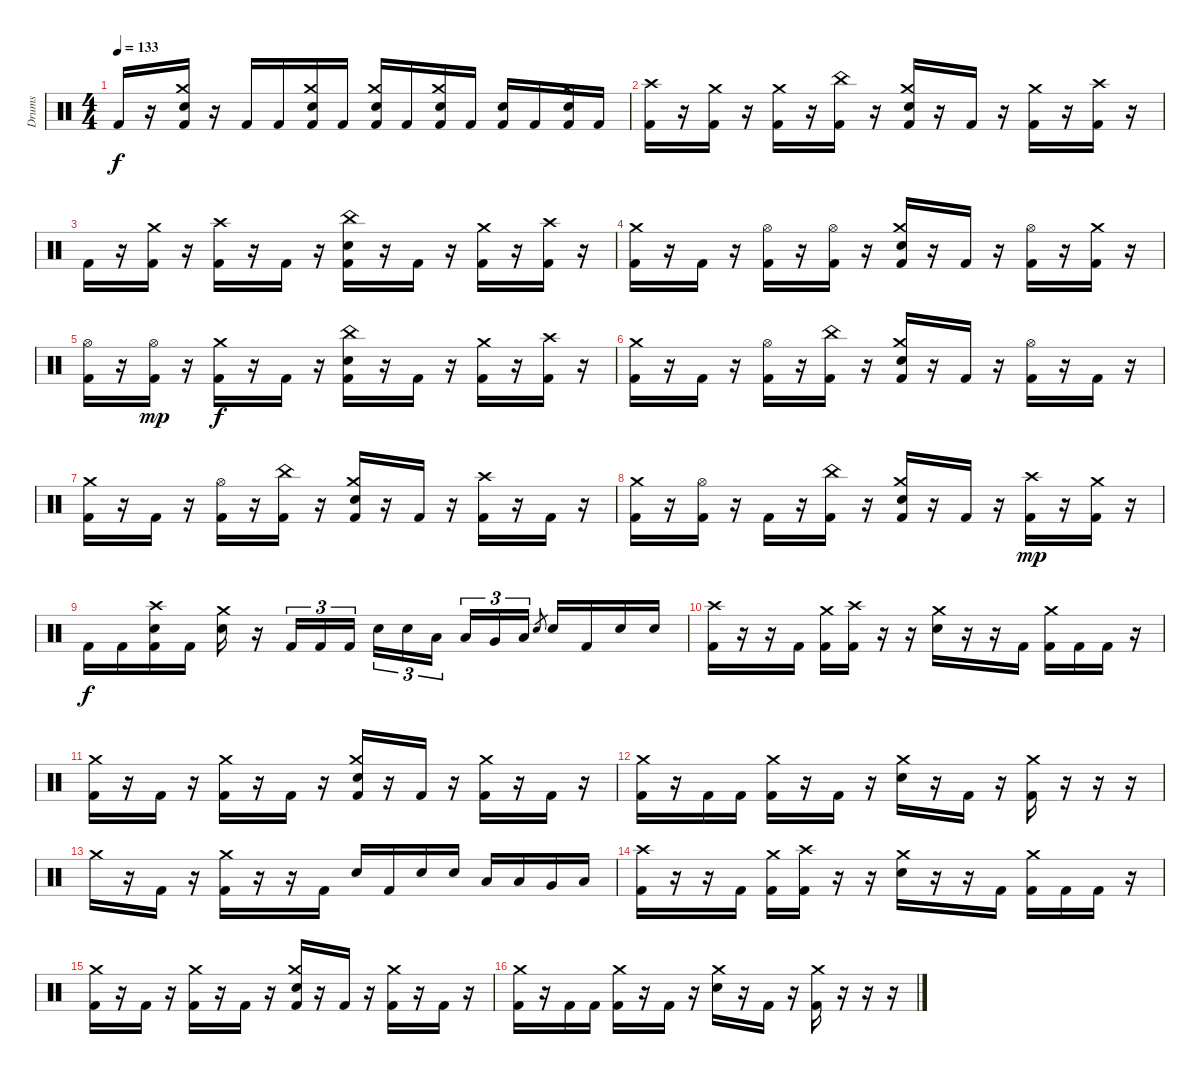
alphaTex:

\track ("Drums" "Drums") {instrument percussion}
\staff {score}
\articulation defaults
\ts (4 4)
\tempo 133
\clef neutral
\ks c "Kick (hit) 2".16{dy f}
r.16 ("Crash medium (hit)" "Snare (hit) 2" "Kick (hit) 2").16 r.16 "Kick (hit) 2".16 "Kick (hit) 2".16 ("Crash medium (hit)" "Snare (hit) 2" "Kick (hit) 2").16 "Kick (hit) 2".16 ("Crash medium (hit)" "Snare (hit) 2" "Kick (hit) 2").16 "Kick (hit) 2".16 ("Crash medium (hit)" "Snare (hit) 2" "Kick (hit) 2").16 "Kick (hit) 2".16 ("Snare (hit) 2" "Kick (hit) 2").16 "Kick (hit) 2".16 ("Crash medium (hit)" "Snare (hit) 2" "Kick (hit) 2").16 "Kick (hit) 2".16 |
("Crash high (hit)" "Kick (hit) 2").16 r.16 ("Crash medium (hit)" "Kick (hit) 2").16 r.16 ("Crash medium (hit)" "Kick (hit) 2").16 r.16 ("China (hit)" "Kick (hit) 2").16 r.16 ("Crash medium (hit)" "Snare (hit) 2" "Kick (hit) 2").16 r.16 "Kick (hit) 2".16 r.16 ("Crash medium (hit)" "Kick (hit) 2").16 r.16 ("Crash high (hit)" "Kick (hit) 2").16 r.16 |
"Kick (hit) 2".16 r.16 ("Crash medium (hit)" "Kick (hit) 2").16 r.16 ("Crash high (hit)" "Kick (hit) 2").16 r.16 "Kick (hit) 2".16 r.16 ("China (hit)" "Snare (hit) 2" "Kick (hit) 2").16 r.16 "Kick (hit) 2".16 r.16 ("Crash medium (hit)" "Kick (hit) 2").16 r.16 ("Crash high (hit)" "Kick (hit) 2").16 r.16 |
("Crash medium (hit)" "Kick (hit) 2").16 r.16 "Kick (hit) 2".16 r.16 ("Hi-Hat (open)" "Kick (hit) 2").16 r.16 ("Hi-Hat (open)" "Kick (hit) 2").16 r.16 ("Crash medium (hit)" "Snare (hit) 2" "Kick (hit) 2").16 r.16 "Kick (hit) 2".16 r.16 ("Hi-Hat (open)" "Kick (hit) 2").16 r.16 ("Crash medium (hit)" "Kick (hit) 2").16 r.16 |
("Hi-Hat (open)" "Kick (hit) 2").16 r.16 ("Hi-Hat (open)" "Kick (hit) 2").16{dy mp} r.16 ("Crash medium (hit)" "Kick (hit) 2").16{dy f} r.16 "Kick (hit) 2".16 r.16 ("China (hit)" "Snare (hit) 2" "Kick (hit) 2").16 r.16 "Kick (hit) 2".16 r.16 ("Crash medium (hit)" "Kick (hit) 2").16 r.16 ("Crash high (hit)" "Kick (hit) 2").16 r.16 |
("Crash medium (hit)" "Kick (hit) 2").16 r.16 "Kick (hit) 2".16 r.16 ("Hi-Hat (open)" "Kick (hit) 2").16 r.16 ("China (hit)" "Kick (hit) 2").16 r.16 ("Crash medium (hit)" "Snare (hit) 2" "Kick (hit) 2").16 r.16 "Kick (hit) 2".16 r.16 ("Hi-Hat (open)" "Kick (hit) 2").16 r.16 "Kick (hit) 2".16 r.16 |
("Crash medium (hit)" "Kick (hit) 2").16 r.16 "Kick (hit) 2".16 r.16 ("Hi-Hat (open)" "Kick (hit) 2").16 r.16 ("China (hit)" "Kick (hit) 2").16 r.16 ("Crash medium (hit)" "Snare (hit) 2" "Kick (hit) 2").16 r.16 "Kick (hit) 2".16 r.16 ("Crash high (hit)" "Kick (hit) 2").16 r.16 "Kick (hit) 2".16 r.16 |
("Crash medium (hit)" "Kick (hit) 2").16 r.16 ("Hi-Hat (open)" "Kick (hit) 2").16 r.16 "Kick (hit) 2".16 r.16 ("China (hit)" "Kick (hit) 2").16 r.16 ("Crash medium (hit)" "Snare (hit) 2" "Kick (hit) 2").16 r.16 "Kick (hit) 2".16 r.16 ("Crash high (hit)" "Kick (hit) 2").16{dy mp} r.16 ("Crash medium (hit)" "Kick (hit) 2").16 r.16 |
"Kick (hit) 2".16{dy f} "Kick (hit) 2".16 ("Crash high (hit)" "Snare (hit) 2" "Kick (hit) 2").16 "Kick (hit) 2".16 ("Crash medium (hit)" "Snare (hit) 2").16 r.16 "Kick (hit) 2".16{tu (3 2)} "Kick (hit) 2".16{tu (3 2)} "Kick (hit) 2".16{tu (3 2)} "Snare (hit) 2".16{tu (3 2)} "Snare (hit) 2".16{tu (3 2)} "Low Tom (hit)".16{tu (3 2) beam splitsecondary} "Low Tom (hit)".16{tu (3 2)} "Very Low Tom (hit)".16{tu (3 2)} "Low Floor Tom (hit)".16{tu (3 2)} "Snare (hit) 2".8{gr} "Snare (hit) 2".16 "Kick (hit) 2".16 "Snare (hit) 2".16 "Snare (hit) 2".16 |
("Crash high (hit)" "Kick (hit) 2").16 r.16 r.16 "Kick (hit) 2".16 ("Crash medium (hit)" "Kick (hit) 2").16 ("Crash high (hit)" "Kick (hit) 2").16 r.16 r.16 ("Crash medium (hit)" "Snare (hit) 2").16 r.16 r.16 "Kick (hit) 2".16 ("Crash medium (hit)" "Kick (hit) 2").16 "Kick (hit) 2".16 "Kick (hit) 2".16 r.16 |
("Crash medium (hit)" "Kick (hit) 2").16 r.16 "Kick (hit) 2".16 r.16 ("Crash medium (hit)" "Kick (hit) 2").16 r.16 "Kick (hit) 2".16 r.16 ("Crash medium (hit)" "Snare (hit) 2" "Kick (hit) 2").16 r.16 "Kick (hit) 2".16 r.16 ("Crash medium (hit)" "Kick (hit) 2").16 r.16 "Kick (hit) 2".16 r.16 |
("Crash medium (hit)" "Kick (hit) 2").16 r.16 "Kick (hit) 2".16 "Kick (hit) 2".16 ("Crash medium (hit)" "Kick (hit) 2").16 r.16 "Kick (hit) 2".16 r.16 ("Crash medium (hit)" "Snare (hit) 2").16 r.16 "Kick (hit) 2".16 r.16 ("Crash medium (hit)" "Kick (hit) 2").16 r.16 r.16 r.16 |
"Crash medium (hit)".16 r.16 "Kick (hit) 2".16 r.16 ("Crash medium (hit)" "Kick (hit) 2").16 r.16 r.16 "Kick (hit) 2".16 "Snare (hit) 2".16 "Kick (hit) 2".16 "Snare (hit) 2".16 "Snare (hit) 2".16 "Low Tom (hit)".16 "Low Tom (hit)".16 "Very Low Tom (hit)".16 "Low Floor Tom (hit)".16 |
("Crash high (hit)" "Kick (hit) 2").16 r.16 r.16 "Kick (hit) 2".16 ("Crash medium (hit)" "Kick (hit) 2").16 ("Crash high (hit)" "Kick (hit) 2").16 r.16 r.16 ("Crash medium (hit)" "Snare (hit) 2").16 r.16 r.16 "Kick (hit) 2".16 ("Crash medium (hit)" "Kick (hit) 2").16 "Kick (hit) 2".16 "Kick (hit) 2".16 r.16 |
("Crash medium (hit)" "Kick (hit) 2").16 r.16 "Kick (hit) 2".16 r.16 ("Crash medium (hit)" "Kick (hit) 2").16 r.16 "Kick (hit) 2".16 r.16 ("Crash medium (hit)" "Snare (hit) 2" "Kick (hit) 2").16 r.16 "Kick (hit) 2".16 r.16 ("Crash medium (hit)" "Kick (hit) 2").16 r.16 "Kick (hit) 2".16 r.16 |
("Crash medium (hit)" "Kick (hit) 2").16 r.16 "Kick (hit) 2".16 "Kick (hit) 2".16 ("Crash medium (hit)" "Kick (hit) 2").16 r.16 "Kick (hit) 2".16 r.16 ("Crash medium (hit)" "Snare (hit) 2").16 r.16 "Kick (hit) 2".16 r.16 ("Crash medium (hit)" "Kick (hit) 2").16 r.16 r.16 r.16
